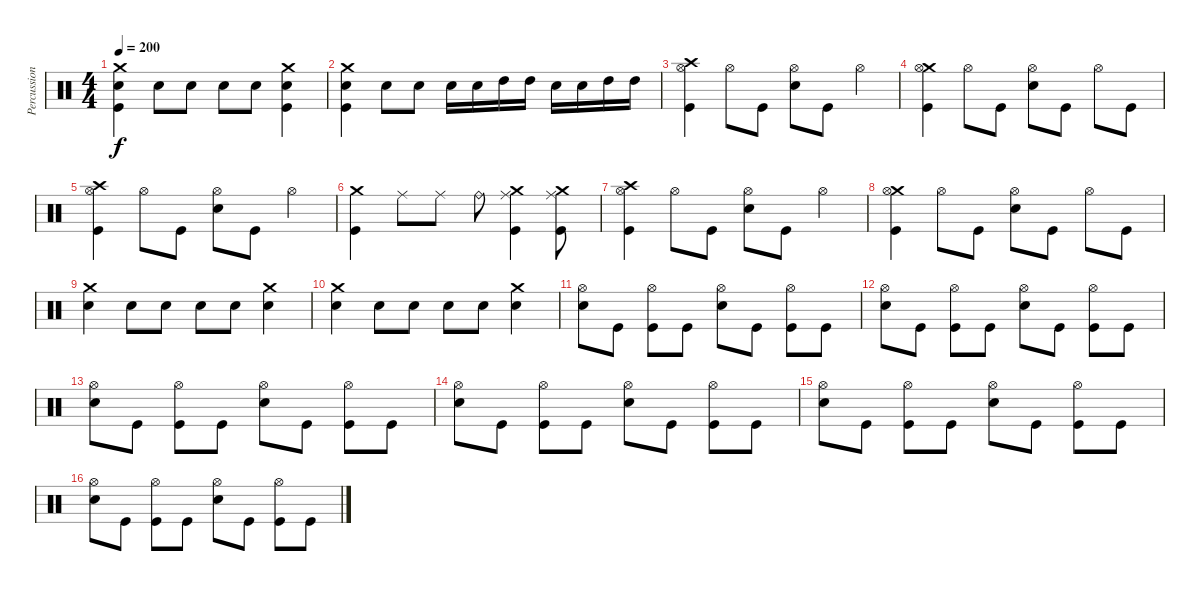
\track ("Percussion" "Percussion") {instrument percussion}
\staff {score}
\articulation defaults
\ts (4 4)
\tempo 200
\clef neutral
\ks c
("Crash medium (hit)" "Snare (hit) 2" "Kick (hit)").4{dy f} "Snare (hit) 2".8 "Snare (hit) 2".8 "Snare (hit) 2".8 "Snare (hit) 2".8 ("Crash medium (hit)" "Snare (hit) 2" "Kick (hit)").4 |
("Crash medium (hit)" "Snare (hit) 2" "Kick (hit)").4 "Snare (hit) 2".8 "Snare (hit) 2".8 "Snare (hit) 2".16 "Snare (hit) 2".16 "High Tom (hit)".16 "High Tom (hit)".16 "Snare (hit) 2".16 "Snare (hit) 2".16 "High Tom (hit)".16 "High Tom (hit)".16 |
("Crash high (hit)" "Hi-Hat (open)" "Kick (hit)").4 "Hi-Hat (open)".8 "Kick (hit)".8 ("Snare (hit) 2" "Hi-Hat (open)").8 "Kick (hit)".8 "Hi-Hat (open)".4 |
("Crash medium (hit)" "Hi-Hat (open)" "Kick (hit)").4 "Hi-Hat (open)".8 "Kick (hit)".8 ("Snare (hit) 2" "Hi-Hat (open)").8 "Kick (hit)".8 "Hi-Hat (open)".8 "Kick (hit)".8 |
("Crash high (hit)" "Hi-Hat (open)" "Kick (hit)").4 "Hi-Hat (open)".8 "Kick (hit)".8 ("Snare (hit) 2" "Hi-Hat (open)").8 "Kick (hit)".8 "Hi-Hat (open)".4 |
("Crash medium (hit)" "Kick (hit)").4 "Ride (middle)".8 "Ride (middle)".8 "Ride (bell)".8 ("Crash medium (hit)" "Ride (middle)" "Kick (hit)").4 ("Crash medium (hit)" "Ride (middle)" "Kick (hit)").8 |
("Crash high (hit)" "Hi-Hat (open)" "Kick (hit)").4 "Hi-Hat (open)".8 "Kick (hit)".8 ("Snare (hit) 2" "Hi-Hat (open)").8 "Kick (hit)".8 "Hi-Hat (open)".4 |
("Crash medium (hit)" "Hi-Hat (open)" "Kick (hit)").4 "Hi-Hat (open)".8 "Kick (hit)".8 ("Snare (hit) 2" "Hi-Hat (open)").8 "Kick (hit)".8 "Hi-Hat (open)".8 "Kick (hit)".8 |
("Crash medium (hit)" "Snare (hit) 2").4 "Snare (hit) 2".8 "Snare (hit) 2".8 "Snare (hit) 2".8 "Snare (hit) 2".8 ("Crash medium (hit)" "Snare (hit) 2").4 |
("Crash medium (hit)" "Snare (hit) 2").4 "Snare (hit) 2".8 "Snare (hit) 2".8 "Snare (hit) 2".8 "Snare (hit) 2".8 ("Crash medium (hit)" "Snare (hit) 2").4 |
("Snare (hit) 2" "Hi-Hat (open)").8 "Kick (hit)".8 ("Hi-Hat (open)" "Kick (hit)").8 "Kick (hit)".8 ("Snare (hit) 2" "Hi-Hat (open)").8 "Kick (hit)".8 ("Hi-Hat (open)" "Kick (hit)").8 "Kick (hit)".8 |
("Snare (hit) 2" "Hi-Hat (open)").8 "Kick (hit)".8 ("Hi-Hat (open)" "Kick (hit)").8 "Kick (hit)".8 ("Snare (hit) 2" "Hi-Hat (open)").8 "Kick (hit)".8 ("Hi-Hat (open)" "Kick (hit)").8 "Kick (hit)".8 |
("Snare (hit) 2" "Hi-Hat (open)").8 "Kick (hit)".8 ("Hi-Hat (open)" "Kick (hit)").8 "Kick (hit)".8 ("Snare (hit) 2" "Hi-Hat (open)").8 "Kick (hit)".8 ("Hi-Hat (open)" "Kick (hit)").8 "Kick (hit)".8 |
("Snare (hit) 2" "Hi-Hat (open)").8 "Kick (hit)".8 ("Hi-Hat (open)" "Kick (hit)").8 "Kick (hit)".8 ("Snare (hit) 2" "Hi-Hat (open)").8 "Kick (hit)".8 ("Hi-Hat (open)" "Kick (hit)").8 "Kick (hit)".8 |
("Snare (hit) 2" "Hi-Hat (open)").8 "Kick (hit)".8 ("Hi-Hat (open)" "Kick (hit)").8 "Kick (hit)".8 ("Snare (hit) 2" "Hi-Hat (open)").8 "Kick (hit)".8 ("Hi-Hat (open)" "Kick (hit)").8 "Kick (hit)".8 |
("Snare (hit) 2" "Hi-Hat (open)").8 "Kick (hit)".8 ("Hi-Hat (open)" "Kick (hit)").8 "Kick (hit)".8 ("Snare (hit) 2" "Hi-Hat (open)").8 "Kick (hit)".8 ("Hi-Hat (open)" "Kick (hit)").8 "Kick (hit)".8
